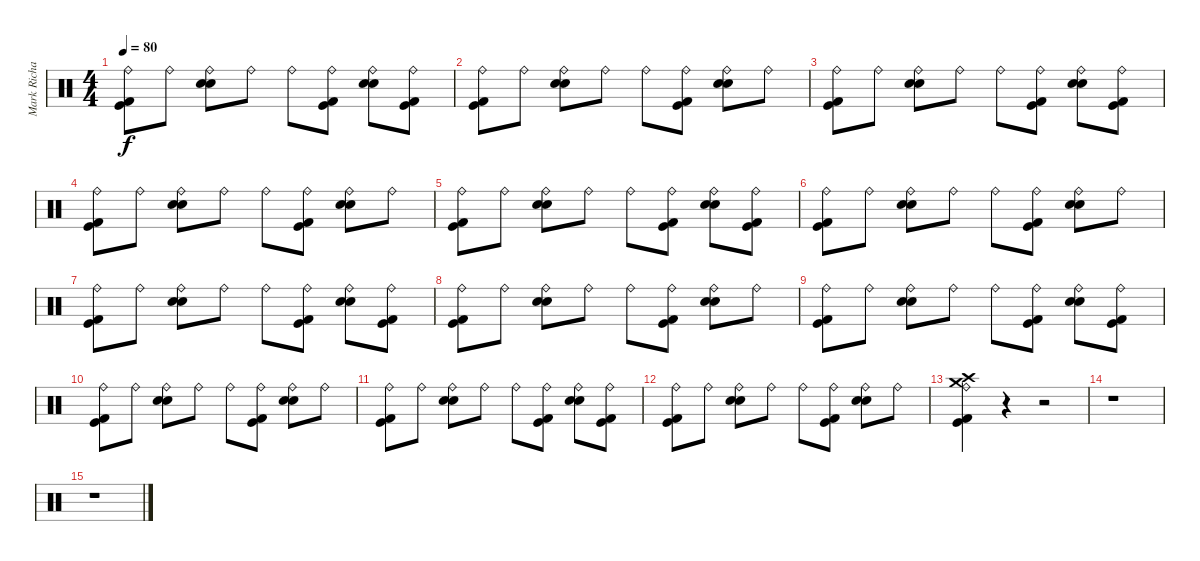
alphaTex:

\track ("Mark Richardson (Drums)" "Mark Richa") {instrument percussion}
\staff {score}
\articulation defaults
\ts (4 4)
\tempo 80
\clef neutral
\ks c
("Kick (hit) 2" "Kick (hit)" "Ride (bell)").8{dy f} "Ride (bell)".8 ("Electric Snare (hit)" "Snare (hit) 2" "Ride (bell)").8 "Ride (bell)".8 "Ride (bell)".8 ("Kick (hit) 2" "Kick (hit)" "Ride (bell)").8 ("Electric Snare (hit)" "Snare (hit) 2" "Ride (bell)").8 ("Kick (hit) 2" "Kick (hit)" "Ride (bell)").8 |
("Kick (hit) 2" "Kick (hit)" "Ride (bell)").8 "Ride (bell)".8 ("Electric Snare (hit)" "Snare (hit) 2" "Ride (bell)").8 "Ride (bell)".8 "Ride (bell)".8 ("Kick (hit) 2" "Kick (hit)" "Ride (bell)").8 ("Electric Snare (hit)" "Snare (hit) 2" "Ride (bell)").8 "Ride (bell)".8 |
("Kick (hit) 2" "Kick (hit)" "Ride (bell)").8 "Ride (bell)".8 ("Electric Snare (hit)" "Snare (hit) 2" "Ride (bell)").8 "Ride (bell)".8 "Ride (bell)".8 ("Kick (hit) 2" "Kick (hit)" "Ride (bell)").8 ("Electric Snare (hit)" "Snare (hit) 2" "Ride (bell)").8 ("Kick (hit) 2" "Kick (hit)" "Ride (bell)").8 |
("Kick (hit) 2" "Kick (hit)" "Ride (bell)").8 "Ride (bell)".8 ("Electric Snare (hit)" "Snare (hit) 2" "Ride (bell)").8 "Ride (bell)".8 "Ride (bell)".8 ("Kick (hit) 2" "Kick (hit)" "Ride (bell)").8 ("Electric Snare (hit)" "Snare (hit) 2" "Ride (bell)").8 "Ride (bell)".8 |
("Kick (hit) 2" "Kick (hit)" "Ride (bell)").8 "Ride (bell)".8 ("Electric Snare (hit)" "Snare (hit) 2" "Ride (bell)").8 "Ride (bell)".8 "Ride (bell)".8 ("Kick (hit) 2" "Kick (hit)" "Ride (bell)").8 ("Electric Snare (hit)" "Snare (hit) 2" "Ride (bell)").8 ("Kick (hit) 2" "Kick (hit)" "Ride (bell)").8 |
("Kick (hit) 2" "Kick (hit)" "Ride (bell)").8 "Ride (bell)".8 ("Electric Snare (hit)" "Snare (hit) 2" "Ride (bell)").8 "Ride (bell)".8 "Ride (bell)".8 ("Kick (hit) 2" "Kick (hit)" "Ride (bell)").8 ("Electric Snare (hit)" "Snare (hit) 2" "Ride (bell)").8 "Ride (bell)".8 |
("Kick (hit) 2" "Kick (hit)" "Ride (bell)").8 "Ride (bell)".8 ("Electric Snare (hit)" "Snare (hit) 2" "Ride (bell)").8 "Ride (bell)".8 "Ride (bell)".8 ("Kick (hit) 2" "Kick (hit)" "Ride (bell)").8 ("Electric Snare (hit)" "Snare (hit) 2" "Ride (bell)").8 ("Kick (hit) 2" "Kick (hit)" "Ride (bell)").8 |
("Kick (hit) 2" "Kick (hit)" "Ride (bell)").8 "Ride (bell)".8 ("Electric Snare (hit)" "Snare (hit) 2" "Ride (bell)").8 "Ride (bell)".8 "Ride (bell)".8 ("Kick (hit) 2" "Kick (hit)" "Ride (bell)").8 ("Electric Snare (hit)" "Snare (hit) 2" "Ride (bell)").8 "Ride (bell)".8 |
("Kick (hit) 2" "Kick (hit)" "Ride (bell)").8 "Ride (bell)".8 ("Electric Snare (hit)" "Snare (hit) 2" "Ride (bell)").8 "Ride (bell)".8 "Ride (bell)".8 ("Kick (hit) 2" "Kick (hit)" "Ride (bell)").8 ("Electric Snare (hit)" "Snare (hit) 2" "Ride (bell)").8 ("Kick (hit) 2" "Kick (hit)" "Ride (bell)").8 |
("Kick (hit) 2" "Kick (hit)" "Ride (bell)").8 "Ride (bell)".8 ("Electric Snare (hit)" "Snare (hit) 2" "Ride (bell)").8 "Ride (bell)".8 "Ride (bell)".8 ("Kick (hit) 2" "Kick (hit)" "Ride (bell)").8 ("Electric Snare (hit)" "Snare (hit) 2" "Ride (bell)").8 "Ride (bell)".8 |
("Kick (hit) 2" "Kick (hit)" "Ride (bell)").8 "Ride (bell)".8 ("Electric Snare (hit)" "Snare (hit) 2" "Ride (bell)").8 "Ride (bell)".8 "Ride (bell)".8 ("Kick (hit) 2" "Kick (hit)" "Ride (bell)").8 ("Electric Snare (hit)" "Snare (hit) 2" "Ride (bell)").8 ("Kick (hit) 2" "Kick (hit)" "Ride (bell)").8 |
("Kick (hit) 2" "Kick (hit)" "Ride (bell)").8 "Ride (bell)".8 ("Electric Snare (hit)" "Snare (hit) 2" "Ride (bell)").8 "Ride (bell)".8 "Ride (bell)".8 ("Kick (hit) 2" "Kick (hit)" "Ride (bell)").8 ("Electric Snare (hit)" "Snare (hit) 2" "Ride (bell)").8 "Ride (bell)".8 |
("Kick (hit) 2" "Kick (hit)" "Ride (bell)" "Crash high (hit)" "Crash medium (hit)").4 r.4 r.2 |
r.1 |
r.1
